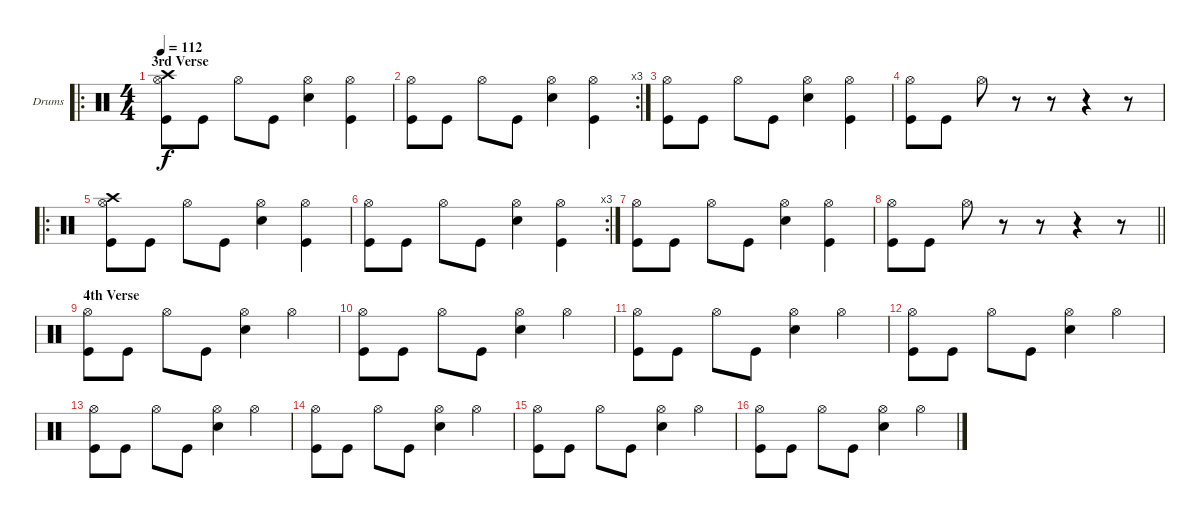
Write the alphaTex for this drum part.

\bracketExtendMode groupsimilarinstruments
\firstSystemTrackNameOrientation horizontal
\otherSystemsTrackNameOrientation horizontal
\track ("Drumkit" "Drums") {instrument percussion}
\staff {score}
\articulation defaults
\ro
\ts (4 4)
\section ("" "3rd Verse")
\tempo 112
\clef neutral
\ks c
("Kick (hit)" "Hi-Hat (open)" "Crash high (hit)").8{dy f} "Kick (hit)".8 "Hi-Hat (open)".8 "Kick (hit)".8 ("Snare (hit) 2" "Hi-Hat (open)").4 ("Kick (hit)" "Hi-Hat (open)").4 |
\rc 3
("Kick (hit)" "Hi-Hat (open)").8 "Kick (hit)".8 "Hi-Hat (open)".8 "Kick (hit)".8 ("Snare (hit) 2" "Hi-Hat (open)").4 ("Kick (hit)" "Hi-Hat (open)").4 |
("Kick (hit)" "Hi-Hat (open)").8 "Kick (hit)".8 "Hi-Hat (open)".8 "Kick (hit)".8 ("Snare (hit) 2" "Hi-Hat (open)").4 ("Kick (hit)" "Hi-Hat (open)").4 |
("Kick (hit)" "Hi-Hat (open)").8 "Kick (hit)".8 "Hi-Hat (open)".8 r.8 r.8 r.4 r.8 |
\ro
("Kick (hit)" "Hi-Hat (open)" "Crash high (hit)").8 "Kick (hit)".8 "Hi-Hat (open)".8 "Kick (hit)".8 ("Snare (hit) 2" "Hi-Hat (open)").4 ("Kick (hit)" "Hi-Hat (open)").4 |
\rc 3
("Kick (hit)" "Hi-Hat (open)").8 "Kick (hit)".8 "Hi-Hat (open)".8 "Kick (hit)".8 ("Snare (hit) 2" "Hi-Hat (open)").4 ("Kick (hit)" "Hi-Hat (open)").4 |
("Kick (hit)" "Hi-Hat (open)").8 "Kick (hit)".8 "Hi-Hat (open)".8 "Kick (hit)".8 ("Snare (hit) 2" "Hi-Hat (open)").4 ("Kick (hit)" "Hi-Hat (open)").4 |
\barLineRight lightlight
("Kick (hit)" "Hi-Hat (open)").8 "Kick (hit)".8 "Hi-Hat (open)".8 r.8 r.8 r.4 r.8 |
\section ("" "4th Verse")
("Kick (hit)" "Hi-Hat (open)").8 "Kick (hit)".8 "Hi-Hat (open)".8 "Kick (hit)".8 ("Snare (hit) 2" "Hi-Hat (open)").4 "Hi-Hat (open)".4 |
("Kick (hit)" "Hi-Hat (open)").8 "Kick (hit)".8 "Hi-Hat (open)".8 "Kick (hit)".8 ("Snare (hit) 2" "Hi-Hat (open)").4 "Hi-Hat (open)".4 |
("Kick (hit)" "Hi-Hat (open)").8 "Kick (hit)".8 "Hi-Hat (open)".8 "Kick (hit)".8 ("Snare (hit) 2" "Hi-Hat (open)").4 "Hi-Hat (open)".4 |
("Kick (hit)" "Hi-Hat (open)").8 "Kick (hit)".8 "Hi-Hat (open)".8 "Kick (hit)".8 ("Snare (hit) 2" "Hi-Hat (open)").4 "Hi-Hat (open)".4 |
("Kick (hit)" "Hi-Hat (open)").8 "Kick (hit)".8 "Hi-Hat (open)".8 "Kick (hit)".8 ("Snare (hit) 2" "Hi-Hat (open)").4 "Hi-Hat (open)".4 |
("Kick (hit)" "Hi-Hat (open)").8 "Kick (hit)".8 "Hi-Hat (open)".8 "Kick (hit)".8 ("Snare (hit) 2" "Hi-Hat (open)").4 "Hi-Hat (open)".4 |
("Kick (hit)" "Hi-Hat (open)").8 "Kick (hit)".8 "Hi-Hat (open)".8 "Kick (hit)".8 ("Snare (hit) 2" "Hi-Hat (open)").4 "Hi-Hat (open)".4 |
("Kick (hit)" "Hi-Hat (open)").8 "Kick (hit)".8 "Hi-Hat (open)".8 "Kick (hit)".8 ("Snare (hit) 2" "Hi-Hat (open)").4 "Hi-Hat (open)".4
